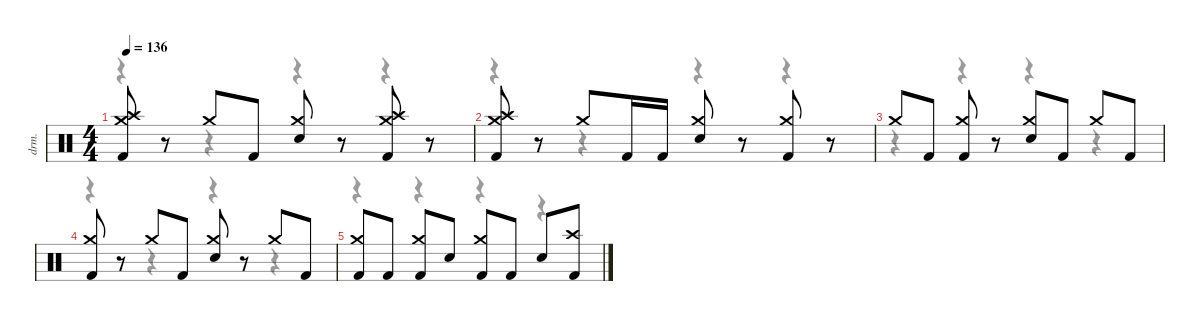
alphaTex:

\defaultSystemsLayout 4
\hideDynamics
\bracketExtendMode nobrackets
\track ("Drums" "drm.") {instrument percussion}
\staff {score}
\articulation defaults
\voice
\ts (4 4)
\tempo 136
\clef neutral
\ks c
("Crash medium (hit)" "Crash high (hit)" "Kick (hit) 2").8{dy f beam Up} r.8{beam Up} "Crash medium (hit)".8{beam Up} "Kick (hit) 2".8{beam Up} ("Crash medium (hit)" "Snare (hit) 2").8{beam Up} r.8{beam Up} ("Crash medium (hit)" "Crash high (hit)" "Kick (hit) 2").8{beam Up} r.8{beam Up} |
("Crash medium (hit)" "Crash high (hit)" "Kick (hit) 2").8{beam Up} r.8{beam Up} "Crash medium (hit)".8{beam Up} "Kick (hit) 2".16{beam Up} "Kick (hit) 2".16{beam Up} ("Crash medium (hit)" "Snare (hit) 2").8{beam Up} r.8{beam Up} ("Crash medium (hit)" "Kick (hit) 2").8{beam Up} r.8{beam Up} |
"Crash medium (hit)".8{beam Up} "Kick (hit) 2".8{beam Up} ("Crash medium (hit)" "Kick (hit) 2").8{beam Up} r.8{beam Up} ("Crash medium (hit)" "Snare (hit) 2").8{beam Up} "Kick (hit) 2".8{beam Up} "Crash medium (hit)".8{beam Up} "Kick (hit) 2".8{beam Up} |
("Crash medium (hit)" "Kick (hit) 2").8{beam Up} r.8{beam Up} "Crash medium (hit)".8{beam Up} "Kick (hit) 2".8{beam Up} ("Crash medium (hit)" "Snare (hit) 2").8{beam Up} r.8{beam Up} "Crash medium (hit)".8{beam Up} "Kick (hit) 2".8{beam Up} |
("Crash medium (hit)" "Kick (hit) 2").8{beam Up} "Kick (hit) 2".8{beam Up} ("Crash medium (hit)" "Kick (hit) 2").8{beam Up} "Snare (hit) 2".8{beam Up} ("Crash medium (hit)" "Kick (hit) 2").8{beam Up} "Kick (hit) 2".8{beam Up} "Snare (hit) 2".8{beam Up} ("Crash high (hit)" "Kick (hit) 2").8{beam Up}
\voice
\clef neutral
\ottava regular
\simile none
\ks c
r.4{dy mf beam Down} r.4{beam Down} r.4{beam Down} r.4{beam Down} |
r.4{beam Down} r.4{beam Down} r.4{beam Down} r.4{beam Down} |
r.4{beam Down} r.4{beam Down} r.4{beam Down} r.4{beam Down} |
r.4{beam Down} r.4{beam Down} r.4{beam Down} r.4{beam Down} |
r.4{beam Down} r.4{beam Down} r.4{beam Down} r.4{beam Down}
